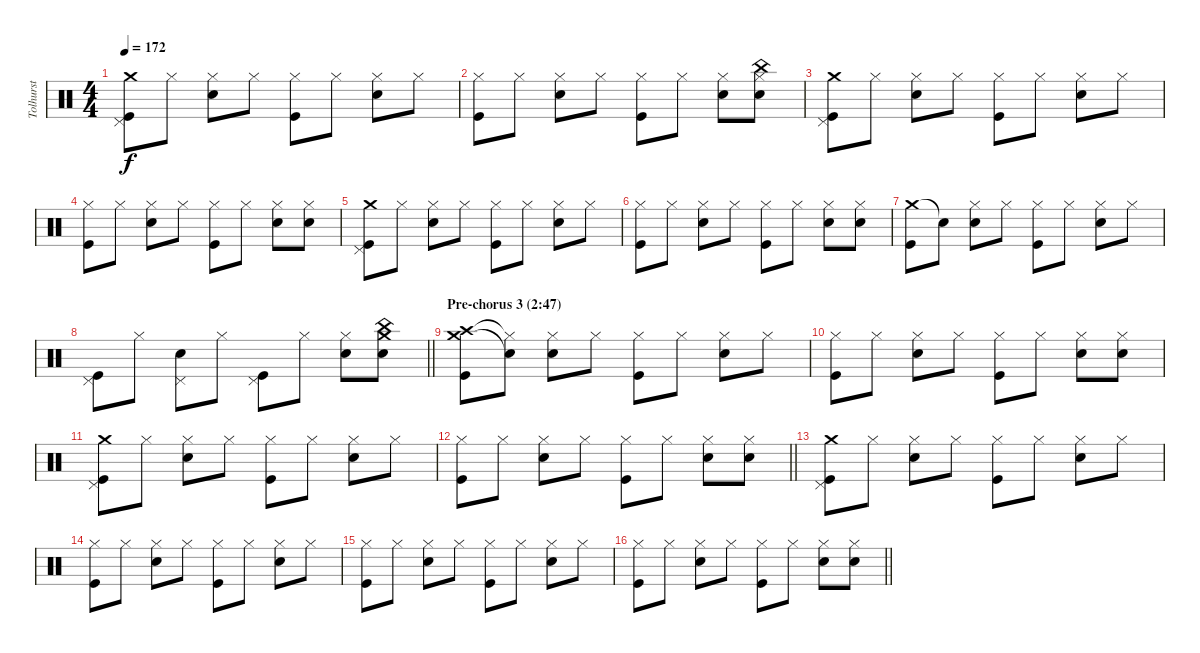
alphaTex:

\track ("Tolhurst" "Tolhurst") {instrument percussion}
\staff {score}
\articulation defaults
\ts (4 4)
\tempo 172
\clef neutral
\ks c
("Crash medium (hit)" "Pedal Hi-Hat (hit)" "Kick (hit)").8{dy f} "Hi-Hat (closed)".8 ("Hi-Hat (closed)" "Snare (hit) 2").8 "Hi-Hat (closed)".8 ("Hi-Hat (closed)" "Kick (hit)").8 "Hi-Hat (closed)".8 ("Hi-Hat (closed)" "Snare (hit) 2").8 "Hi-Hat (closed)".8 |
("Hi-Hat (closed)" "Kick (hit)").8 "Hi-Hat (closed)".8 ("Hi-Hat (closed)" "Snare (hit) 2").8 "Hi-Hat (closed)".8 ("Hi-Hat (closed)" "Kick (hit)").8 "Hi-Hat (closed)".8 ("Hi-Hat (closed)" "Snare (hit) 2").8 ("China (hit)" "Hi-Hat (closed)" "Snare (hit) 2").8 |
("Crash medium (hit)" "Pedal Hi-Hat (hit)" "Kick (hit)").8 "Hi-Hat (closed)".8 ("Hi-Hat (closed)" "Snare (hit) 2").8 "Hi-Hat (closed)".8 ("Hi-Hat (closed)" "Kick (hit)").8 "Hi-Hat (closed)".8 ("Hi-Hat (closed)" "Snare (hit) 2").8 "Hi-Hat (closed)".8 |
("Hi-Hat (closed)" "Kick (hit)").8 "Hi-Hat (closed)".8 ("Hi-Hat (closed)" "Snare (hit) 2").8 "Hi-Hat (closed)".8 ("Hi-Hat (closed)" "Kick (hit)").8 "Hi-Hat (closed)".8 ("Hi-Hat (closed)" "Snare (hit) 2").8 ("Hi-Hat (closed)" "Snare (hit) 2").8 |
("Crash medium (hit)" "Pedal Hi-Hat (hit)" "Kick (hit)").8 "Hi-Hat (closed)".8 ("Hi-Hat (closed)" "Snare (hit) 2").8 "Hi-Hat (closed)".8 ("Hi-Hat (closed)" "Kick (hit)").8 "Hi-Hat (closed)".8 ("Hi-Hat (closed)" "Snare (hit) 2").8 "Hi-Hat (closed)".8 |
("Hi-Hat (closed)" "Kick (hit)").8 "Hi-Hat (closed)".8 ("Hi-Hat (closed)" "Snare (hit) 2").8 "Hi-Hat (closed)".8 ("Hi-Hat (closed)" "Kick (hit)").8 "Hi-Hat (closed)".8 ("Hi-Hat (closed)" "Snare (hit) 2").8 ("Hi-Hat (closed)" "Snare (hit) 2").8 |
("Crash medium (hit)" "Kick (hit)").8 "Snare (hit)"{t}.8 ("Hi-Hat (closed)" "Snare (hit) 2").8 "Hi-Hat (closed)".8 ("Hi-Hat (closed)" "Kick (hit)").8 "Hi-Hat (closed)".8 ("Hi-Hat (closed)" "Snare (hit) 2").8 "Hi-Hat (closed)".8 |
\barLineRight lightlight
("Pedal Hi-Hat (hit)" "Kick (hit)").8 "Hi-Hat (closed)".8 ("Pedal Hi-Hat (hit)" "Snare (hit) 2").8 "Hi-Hat (closed)".8 ("Pedal Hi-Hat (hit)" "Kick (hit)").8 "Hi-Hat (closed)".8 ("Hi-Hat (closed)" "Snare (hit) 2").8 ("China (hit)" "Crash medium (hit)" "Snare (hit) 2").8 |
\section ("" "Pre-chorus 3 (2:47)")
("Crash medium (hit)" "Crash high (hit)" "Kick (hit)").8 ("Snare (hit)"{t} "Hi-Hat (closed)"{t}).8 ("Hi-Hat (closed)" "Snare (hit) 2").8 "Hi-Hat (closed)".8 ("Hi-Hat (closed)" "Kick (hit)").8 "Hi-Hat (closed)".8 ("Hi-Hat (closed)" "Snare (hit) 2").8 "Hi-Hat (closed)".8 |
("Hi-Hat (closed)" "Kick (hit)").8 "Hi-Hat (closed)".8 ("Hi-Hat (closed)" "Snare (hit) 2").8 "Hi-Hat (closed)".8 ("Hi-Hat (closed)" "Kick (hit)").8 "Hi-Hat (closed)".8 ("Hi-Hat (closed)" "Snare (hit) 2").8 ("Hi-Hat (closed)" "Snare (hit) 2").8 |
("Crash medium (hit)" "Pedal Hi-Hat (hit)" "Kick (hit)").8 "Hi-Hat (closed)".8 ("Hi-Hat (closed)" "Snare (hit) 2").8 "Hi-Hat (closed)".8 ("Hi-Hat (closed)" "Kick (hit)").8 "Hi-Hat (closed)".8 ("Hi-Hat (closed)" "Snare (hit) 2").8 "Hi-Hat (closed)".8 |
\barLineRight lightlight
("Hi-Hat (closed)" "Kick (hit)").8 "Hi-Hat (closed)".8 ("Hi-Hat (closed)" "Snare (hit) 2").8 "Hi-Hat (closed)".8 ("Hi-Hat (closed)" "Kick (hit)").8 "Hi-Hat (closed)".8 ("Hi-Hat (closed)" "Snare (hit) 2").8 ("Hi-Hat (closed)" "Snare (hit) 2").8 |
("Crash medium (hit)" "Pedal Hi-Hat (hit)" "Kick (hit)").8 "Hi-Hat (closed)".8 ("Hi-Hat (closed)" "Snare (hit) 2").8 "Hi-Hat (closed)".8 ("Hi-Hat (closed)" "Kick (hit)").8 "Hi-Hat (closed)".8 ("Hi-Hat (closed)" "Snare (hit) 2").8 "Hi-Hat (closed)".8 |
("Hi-Hat (closed)" "Kick (hit)").8 "Hi-Hat (closed)".8 ("Hi-Hat (closed)" "Snare (hit) 2").8 "Hi-Hat (closed)".8 ("Hi-Hat (closed)" "Kick (hit)").8 "Hi-Hat (closed)".8 ("Hi-Hat (closed)" "Snare (hit) 2").8 "Hi-Hat (closed)".8 |
("Hi-Hat (closed)" "Kick (hit)").8 "Hi-Hat (closed)".8 ("Hi-Hat (closed)" "Snare (hit) 2").8 "Hi-Hat (closed)".8 ("Hi-Hat (closed)" "Kick (hit)").8 "Hi-Hat (closed)".8 ("Hi-Hat (closed)" "Snare (hit) 2").8 "Hi-Hat (closed)".8 |
\barLineRight lightlight
("Hi-Hat (closed)" "Kick (hit)").8 "Hi-Hat (closed)".8 ("Hi-Hat (closed)" "Snare (hit) 2").8 "Hi-Hat (closed)".8 ("Hi-Hat (closed)" "Kick (hit)").8 "Hi-Hat (closed)".8 ("Hi-Hat (closed)" "Snare (hit) 2").8 ("Hi-Hat (closed)" "Snare (hit) 2").8
